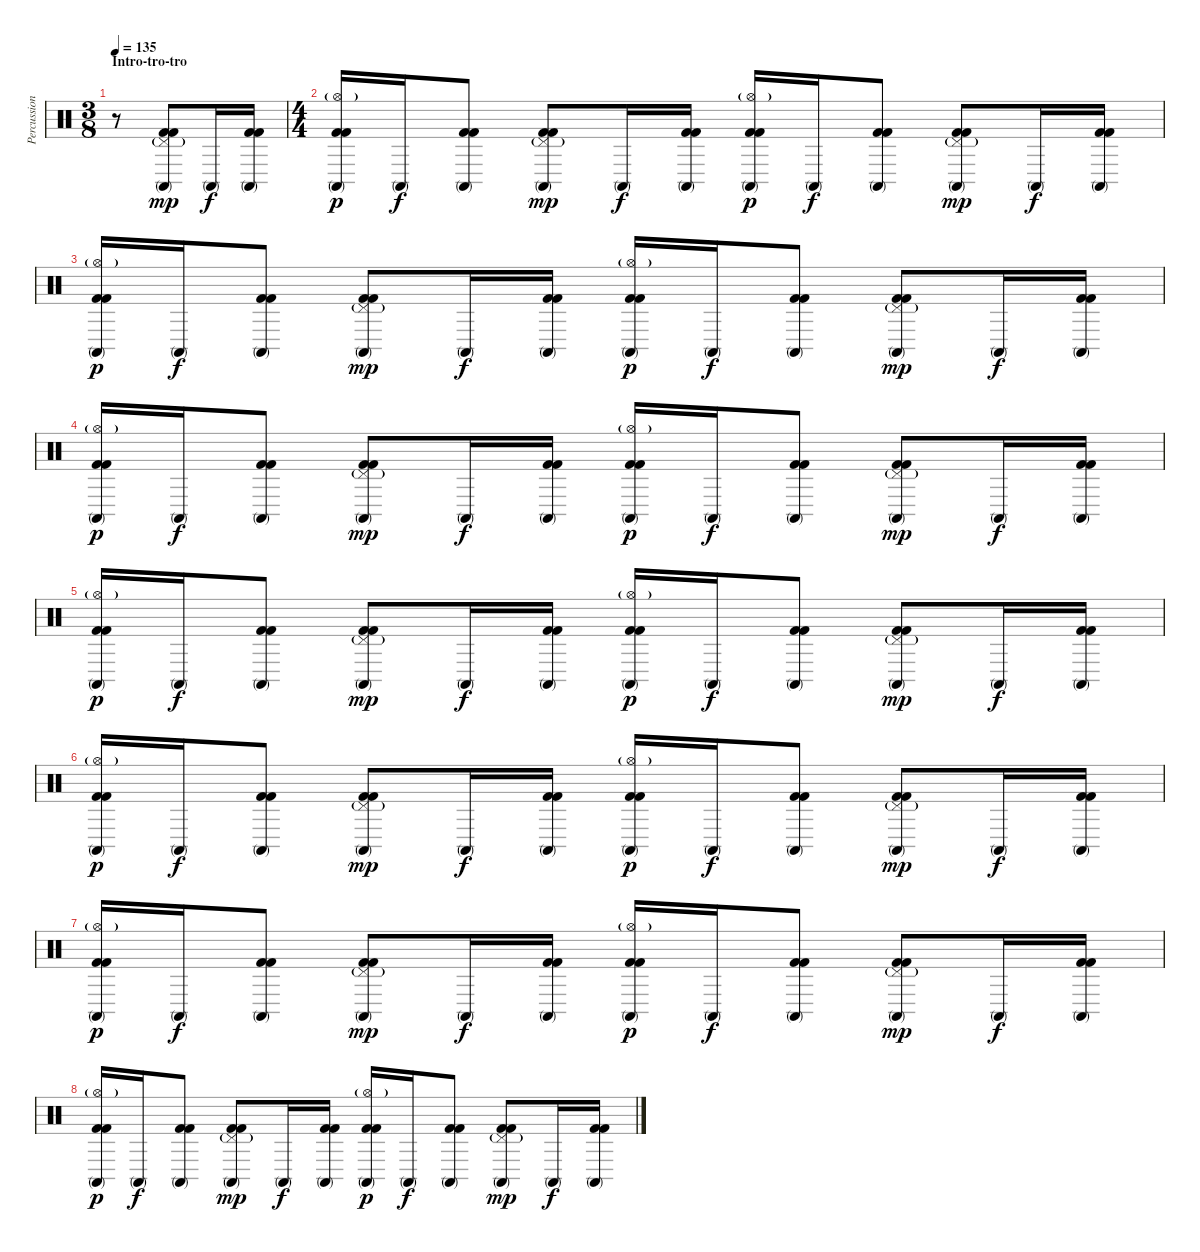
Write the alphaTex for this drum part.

\track ("Percussion" "Percussion") {instrument percussion}
\staff {score}
\articulation defaults
\ts (3 8)
\section ("" "Intro-tro-tro")
\tempo 135
\clef neutral
\ks c
r.8{dy mp} ("Conga high (mute)" "Pedal Hi-Hat (hit)"{g} "Kick (hit) 2" "Kick (hit) 2").8 "Conga high (mute)".16{dy f} ("Conga high (mute)" "Kick (hit) 2" "Kick (hit) 2").16 |
\ts (4 4)
("Conga high (mute)" "Hi-Hat (open)"{g} "Kick (hit) 2" "Kick (hit) 2").16{dy p} "Conga high (mute)".16{dy f} ("Conga high (mute)" "Kick (hit) 2" "Kick (hit) 2").8 ("Conga high (mute)" "Pedal Hi-Hat (hit)"{g} "Kick (hit) 2" "Kick (hit) 2").8{dy mp} "Conga high (mute)".16{dy f} ("Conga high (mute)" "Kick (hit) 2" "Kick (hit) 2").16 ("Conga high (mute)" "Hi-Hat (open)"{g} "Kick (hit) 2" "Kick (hit) 2").16{dy p} "Conga high (mute)".16{dy f} ("Conga high (mute)" "Kick (hit) 2" "Kick (hit) 2").8 ("Conga high (mute)" "Pedal Hi-Hat (hit)"{g} "Kick (hit) 2" "Kick (hit) 2").8{dy mp} "Conga high (mute)".16{dy f} ("Conga high (mute)" "Kick (hit) 2" "Kick (hit) 2").16 |
("Conga high (mute)" "Hi-Hat (open)"{g} "Kick (hit) 2" "Kick (hit) 2").16{dy p} "Conga high (mute)".16{dy f} ("Conga high (mute)" "Kick (hit) 2" "Kick (hit) 2").8 ("Conga high (mute)" "Pedal Hi-Hat (hit)"{g} "Kick (hit) 2" "Kick (hit) 2").8{dy mp} "Conga high (mute)".16{dy f} ("Conga high (mute)" "Kick (hit) 2" "Kick (hit) 2").16 ("Conga high (mute)" "Hi-Hat (open)"{g} "Kick (hit) 2" "Kick (hit) 2").16{dy p} "Conga high (mute)".16{dy f} ("Conga high (mute)" "Kick (hit) 2" "Kick (hit) 2").8 ("Conga high (mute)" "Pedal Hi-Hat (hit)"{g} "Kick (hit) 2" "Kick (hit) 2").8{dy mp} "Conga high (mute)".16{dy f} ("Conga high (mute)" "Kick (hit) 2" "Kick (hit) 2").16 |
("Conga high (mute)" "Hi-Hat (open)"{g} "Kick (hit) 2" "Kick (hit) 2").16{dy p} "Conga high (mute)".16{dy f} ("Conga high (mute)" "Kick (hit) 2" "Kick (hit) 2").8 ("Conga high (mute)" "Pedal Hi-Hat (hit)"{g} "Kick (hit) 2" "Kick (hit) 2").8{dy mp} "Conga high (mute)".16{dy f} ("Conga high (mute)" "Kick (hit) 2" "Kick (hit) 2").16 ("Conga high (mute)" "Hi-Hat (open)"{g} "Kick (hit) 2" "Kick (hit) 2").16{dy p} "Conga high (mute)".16{dy f} ("Conga high (mute)" "Kick (hit) 2" "Kick (hit) 2").8 ("Conga high (mute)" "Pedal Hi-Hat (hit)"{g} "Kick (hit) 2" "Kick (hit) 2").8{dy mp} "Conga high (mute)".16{dy f} ("Conga high (mute)" "Kick (hit) 2" "Kick (hit) 2").16 |
("Conga high (mute)" "Hi-Hat (open)"{g} "Kick (hit) 2" "Kick (hit) 2").16{dy p} "Conga high (mute)".16{dy f} ("Conga high (mute)" "Kick (hit) 2" "Kick (hit) 2").8 ("Conga high (mute)" "Pedal Hi-Hat (hit)"{g} "Kick (hit) 2" "Kick (hit) 2").8{dy mp} "Conga high (mute)".16{dy f} ("Conga high (mute)" "Kick (hit) 2" "Kick (hit) 2").16 ("Conga high (mute)" "Hi-Hat (open)"{g} "Kick (hit) 2" "Kick (hit) 2").16{dy p} "Conga high (mute)".16{dy f} ("Conga high (mute)" "Kick (hit) 2" "Kick (hit) 2").8 ("Conga high (mute)" "Pedal Hi-Hat (hit)"{g} "Kick (hit) 2" "Kick (hit) 2").8{dy mp} "Conga high (mute)".16{dy f} ("Conga high (mute)" "Kick (hit) 2" "Kick (hit) 2").16 |
("Conga high (mute)" "Hi-Hat (open)"{g} "Kick (hit) 2" "Kick (hit) 2").16{dy p} "Conga high (mute)".16{dy f} ("Conga high (mute)" "Kick (hit) 2" "Kick (hit) 2").8 ("Conga high (mute)" "Pedal Hi-Hat (hit)"{g} "Kick (hit) 2" "Kick (hit) 2").8{dy mp} "Conga high (mute)".16{dy f} ("Conga high (mute)" "Kick (hit) 2" "Kick (hit) 2").16 ("Conga high (mute)" "Hi-Hat (open)"{g} "Kick (hit) 2" "Kick (hit) 2").16{dy p} "Conga high (mute)".16{dy f} ("Conga high (mute)" "Kick (hit) 2" "Kick (hit) 2").8 ("Conga high (mute)" "Pedal Hi-Hat (hit)"{g} "Kick (hit) 2" "Kick (hit) 2").8{dy mp} "Conga high (mute)".16{dy f} ("Conga high (mute)" "Kick (hit) 2" "Kick (hit) 2").16 |
("Conga high (mute)" "Hi-Hat (open)"{g} "Kick (hit) 2" "Kick (hit) 2").16{dy p} "Conga high (mute)".16{dy f} ("Conga high (mute)" "Kick (hit) 2" "Kick (hit) 2").8 ("Conga high (mute)" "Pedal Hi-Hat (hit)"{g} "Kick (hit) 2" "Kick (hit) 2").8{dy mp} "Conga high (mute)".16{dy f} ("Conga high (mute)" "Kick (hit) 2" "Kick (hit) 2").16 ("Conga high (mute)" "Hi-Hat (open)"{g} "Kick (hit) 2" "Kick (hit) 2").16{dy p} "Conga high (mute)".16{dy f} ("Conga high (mute)" "Kick (hit) 2" "Kick (hit) 2").8 ("Conga high (mute)" "Pedal Hi-Hat (hit)"{g} "Kick (hit) 2" "Kick (hit) 2").8{dy mp} "Conga high (mute)".16{dy f} ("Conga high (mute)" "Kick (hit) 2" "Kick (hit) 2").16 |
("Conga high (mute)" "Hi-Hat (open)"{g} "Kick (hit) 2" "Kick (hit) 2").16{dy p} "Conga high (mute)".16{dy f} ("Conga high (mute)" "Kick (hit) 2" "Kick (hit) 2").8 ("Conga high (mute)" "Pedal Hi-Hat (hit)"{g} "Kick (hit) 2" "Kick (hit) 2").8{dy mp} "Conga high (mute)".16{dy f} ("Conga high (mute)" "Kick (hit) 2" "Kick (hit) 2").16 ("Conga high (mute)" "Hi-Hat (open)"{g} "Kick (hit) 2" "Kick (hit) 2").16{dy p} "Conga high (mute)".16{dy f} ("Conga high (mute)" "Kick (hit) 2" "Kick (hit) 2").8 ("Conga high (mute)" "Pedal Hi-Hat (hit)"{g} "Kick (hit) 2" "Kick (hit) 2").8{dy mp} "Conga high (mute)".16{dy f} ("Conga high (mute)" "Kick (hit) 2" "Kick (hit) 2").16
